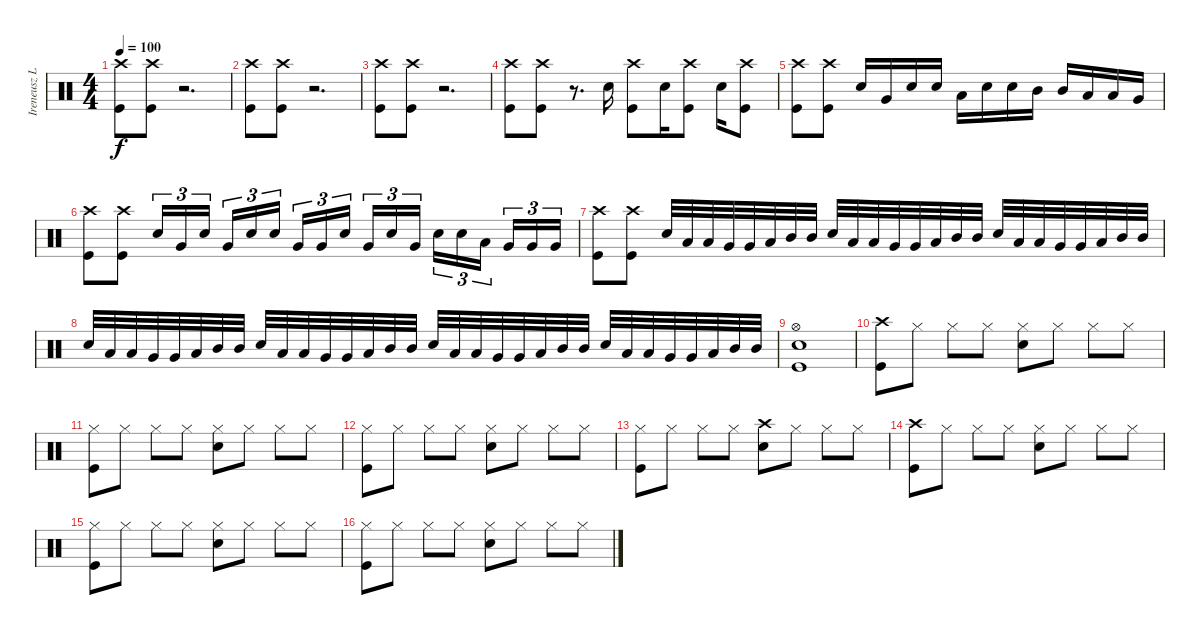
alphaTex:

\track ("Ireneusz Loth" "Ireneusz L") {instrument percussion}
\staff {score}
\articulation defaults
\ts (4 4)
\tempo 100
\clef neutral
\ks c
("Crash high (hit)" "Kick (hit)").8{dy f} ("Crash high (hit)" "Kick (hit)").8 r.2{d} |
("Crash high (hit)" "Kick (hit)").8 ("Crash high (hit)" "Kick (hit)").8 r.2{d} |
("Crash high (hit)" "Kick (hit)").8 ("Crash high (hit)" "Kick (hit)").8 r.2{d} |
("Crash high (hit)" "Kick (hit)").8 ("Crash high (hit)" "Kick (hit)").8 r.8{d} "Snare (hit) 2".16 ("Crash high (hit)" "Kick (hit)").8 "Snare (hit) 2".16 ("Crash high (hit)" "Kick (hit)").8 "Snare (hit) 2".16 ("Crash high (hit)" "Kick (hit)").8 |
("Crash high (hit)" "Kick (hit)").8 ("Crash high (hit)" "Kick (hit)").8 "Snare (hit) 2".16 "Very Low Tom (hit)".16 "Snare (hit) 2".16 "Snare (hit) 2".16 "Low Tom (hit)".16 "Snare (hit) 2".16 "Snare (hit) 2".16 "Mid Tom (hit)".16 "Mid Tom (hit)".16 "Low Tom (hit)".16 "Low Tom (hit)".16 "Very Low Tom (hit)".16 |
("Crash high (hit)" "Kick (hit)").8 ("Crash high (hit)" "Kick (hit)").8 "Snare (hit) 2".16{tu (3 2)} "Very Low Tom (hit)".16{tu (3 2)} "Snare (hit) 2".16{tu (3 2) beam splitsecondary} "Very Low Tom (hit)".16{tu (3 2)} "Snare (hit) 2".16{tu (3 2)} "Snare (hit) 2".16{tu (3 2)} "Very Low Tom (hit)".16{tu (3 2)} "Very Low Tom (hit)".16{tu (3 2)} "Snare (hit) 2".16{tu (3 2) beam splitsecondary} "Very Low Tom (hit)".16{tu (3 2)} "Snare (hit) 2".16{tu (3 2)} "Very Low Tom (hit)".16{tu (3 2)} "Snare (hit) 2".16{tu (3 2)} "Snare (hit) 2".16{tu (3 2)} "Low Tom (hit)".16{tu (3 2) beam splitsecondary} "Very Low Tom (hit)".16{tu (3 2)} "Very Low Tom (hit)".16{tu (3 2)} "Very Low Tom (hit)".16{tu (3 2)} |
("Crash high (hit)" "Kick (hit)").8 ("Crash high (hit)" "Kick (hit)").8 "Snare (hit) 2".32 "Low Tom (hit)".32 "Low Tom (hit)".32 "Very Low Tom (hit)".32 "Very Low Tom (hit)".32 "Low Tom (hit)".32 "Mid Tom (hit)".32 "Mid Tom (hit)".32 "Snare (hit) 2".32 "Low Tom (hit)".32 "Low Tom (hit)".32 "Very Low Tom (hit)".32 "Very Low Tom (hit)".32 "Low Tom (hit)".32 "Mid Tom (hit)".32 "Mid Tom (hit)".32 "Snare (hit) 2".32 "Low Tom (hit)".32 "Low Tom (hit)".32 "Very Low Tom (hit)".32 "Very Low Tom (hit)".32 "Low Tom (hit)".32 "Mid Tom (hit)".32 "Mid Tom (hit)".32 |
"Snare (hit) 2".32 "Low Tom (hit)".32 "Low Tom (hit)".32 "Very Low Tom (hit)".32 "Very Low Tom (hit)".32 "Low Tom (hit)".32 "Mid Tom (hit)".32 "Mid Tom (hit)".32 "Snare (hit) 2".32 "Low Tom (hit)".32 "Low Tom (hit)".32 "Very Low Tom (hit)".32 "Very Low Tom (hit)".32 "Low Tom (hit)".32 "Mid Tom (hit)".32 "Mid Tom (hit)".32 "Snare (hit) 2".32 "Low Tom (hit)".32 "Low Tom (hit)".32 "Very Low Tom (hit)".32 "Very Low Tom (hit)".32 "Low Tom (hit)".32 "Mid Tom (hit)".32 "Mid Tom (hit)".32 "Snare (hit) 2".32 "Low Tom (hit)".32 "Low Tom (hit)".32 "Very Low Tom (hit)".32 "Very Low Tom (hit)".32 "Low Tom (hit)".32 "Mid Tom (hit)".32 "Mid Tom (hit)".32 |
("Hi-Hat (open)" "Snare (hit) 2" "Kick (hit)").1 |
("Crash high (hit)" "Kick (hit)").8 "Hi-Hat (closed)".8 "Hi-Hat (closed)".8 "Hi-Hat (closed)".8 ("Hi-Hat (closed)" "Snare (hit) 2").8 "Hi-Hat (closed)".8 "Hi-Hat (closed)".8 "Hi-Hat (closed)".8 |
("Hi-Hat (closed)" "Kick (hit)").8 "Hi-Hat (closed)".8 "Hi-Hat (closed)".8 "Hi-Hat (closed)".8 ("Hi-Hat (closed)" "Snare (hit) 2").8 "Hi-Hat (closed)".8 "Hi-Hat (closed)".8 "Hi-Hat (closed)".8 |
("Hi-Hat (closed)" "Kick (hit)").8 "Hi-Hat (closed)".8 "Hi-Hat (closed)".8 "Hi-Hat (closed)".8 ("Hi-Hat (closed)" "Snare (hit) 2").8 "Hi-Hat (closed)".8 "Hi-Hat (closed)".8 "Hi-Hat (closed)".8 |
("Hi-Hat (closed)" "Kick (hit)").8 "Hi-Hat (closed)".8 "Hi-Hat (closed)".8 "Hi-Hat (closed)".8 ("Crash high (hit)" "Snare (hit) 2").8 "Hi-Hat (closed)".8 "Hi-Hat (closed)".8 "Hi-Hat (closed)".8 |
("Crash high (hit)" "Kick (hit)").8 "Hi-Hat (closed)".8 "Hi-Hat (closed)".8 "Hi-Hat (closed)".8 ("Hi-Hat (closed)" "Snare (hit) 2").8 "Hi-Hat (closed)".8 "Hi-Hat (closed)".8 "Hi-Hat (closed)".8 |
("Hi-Hat (closed)" "Kick (hit)").8 "Hi-Hat (closed)".8 "Hi-Hat (closed)".8 "Hi-Hat (closed)".8 ("Hi-Hat (closed)" "Snare (hit) 2").8 "Hi-Hat (closed)".8 "Hi-Hat (closed)".8 "Hi-Hat (closed)".8 |
("Hi-Hat (closed)" "Kick (hit)").8 "Hi-Hat (closed)".8 "Hi-Hat (closed)".8 "Hi-Hat (closed)".8 ("Hi-Hat (closed)" "Snare (hit) 2").8 "Hi-Hat (closed)".8 "Hi-Hat (closed)".8 "Hi-Hat (closed)".8
